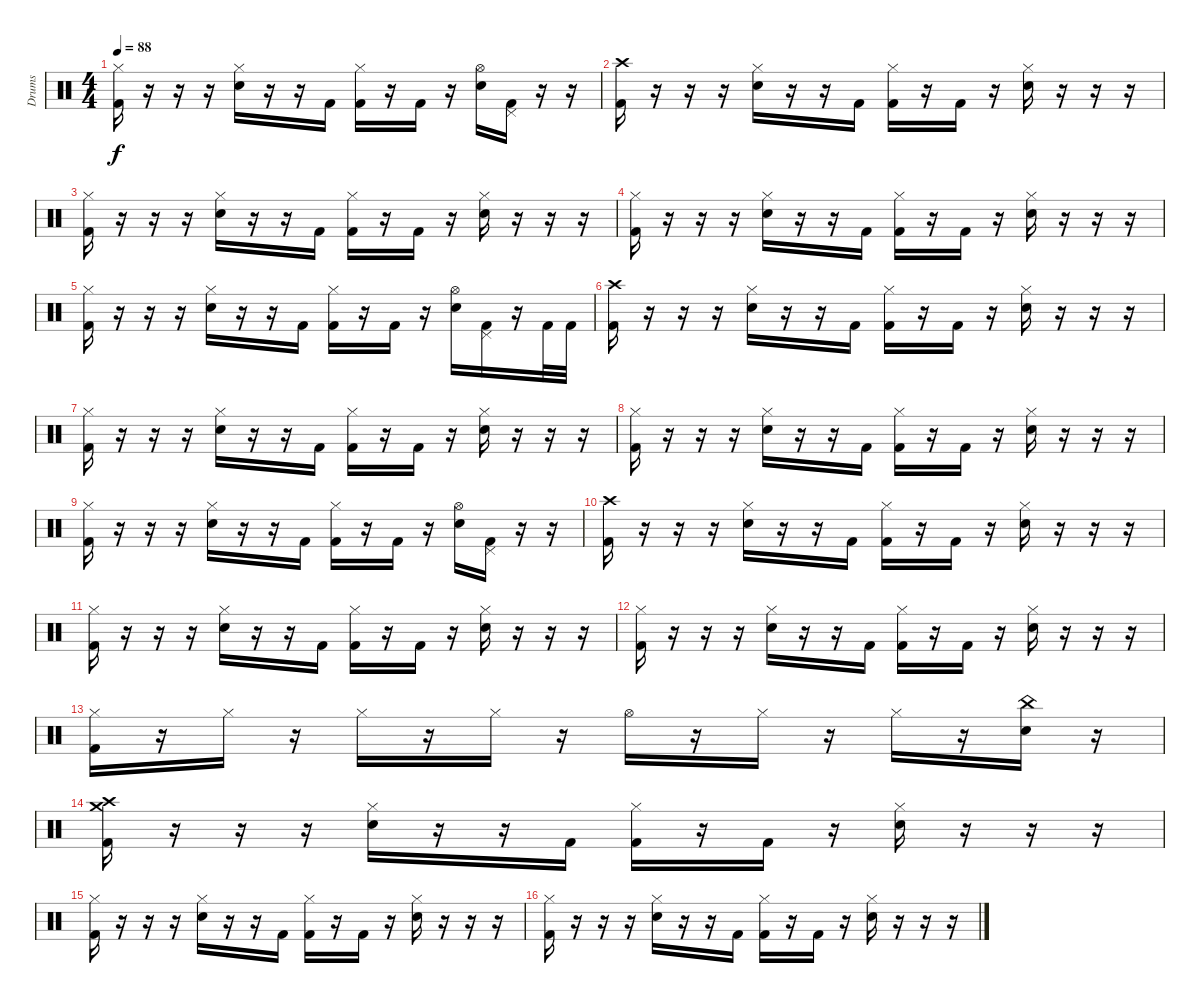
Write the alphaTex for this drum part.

\track ("Drums" "Drums") {instrument percussion}
\staff {score}
\articulation defaults
\ts (4 4)
\tempo 88
\clef neutral
\ks c
("Hi-Hat (closed)" "Kick (hit) 2").16{dy f} r.16 r.16 r.16 ("Hi-Hat (closed)" "Electric Snare (hit)").16 r.16 r.16 "Kick (hit) 2".16 ("Hi-Hat (closed)" "Kick (hit) 2").16 r.16 "Kick (hit) 2".16 r.16 ("Hi-Hat (open)" "Snare (hit) 2").16 ("Pedal Hi-Hat (hit)" "Kick (hit) 2").16 r.16 r.16 |
("Crash high (hit)" "Kick (hit) 2").16 r.16 r.16 r.16 ("Hi-Hat (closed)" "Electric Snare (hit)").16 r.16 r.16 "Kick (hit) 2".16 ("Hi-Hat (closed)" "Kick (hit) 2").16 r.16 "Kick (hit) 2".16 r.16 ("Hi-Hat (closed)" "Electric Snare (hit)").16 r.16 r.16 r.16 |
("Hi-Hat (closed)" "Kick (hit) 2").16 r.16 r.16 r.16 ("Hi-Hat (closed)" "Electric Snare (hit)").16 r.16 r.16 "Kick (hit) 2".16 ("Hi-Hat (closed)" "Kick (hit) 2").16 r.16 "Kick (hit) 2".16 r.16 ("Hi-Hat (closed)" "Electric Snare (hit)").16 r.16 r.16 r.16 |
("Hi-Hat (closed)" "Kick (hit) 2").16 r.16 r.16 r.16 ("Hi-Hat (closed)" "Electric Snare (hit)").16 r.16 r.16 "Kick (hit) 2".16 ("Hi-Hat (closed)" "Kick (hit) 2").16 r.16 "Kick (hit) 2".16 r.16 ("Hi-Hat (closed)" "Electric Snare (hit)").16 r.16 r.16 r.16 |
("Hi-Hat (closed)" "Kick (hit) 2").16 r.16 r.16 r.16 ("Hi-Hat (closed)" "Electric Snare (hit)").16 r.16 r.16 "Kick (hit) 2".16 ("Hi-Hat (closed)" "Kick (hit) 2").16 r.16 "Kick (hit) 2".16 r.16 ("Hi-Hat (open)" "Snare (hit) 2").16 ("Pedal Hi-Hat (hit)" "Kick (hit) 2").16 r.16 "Kick (hit) 2".32 "Kick (hit) 2".32 |
("Crash high (hit)" "Kick (hit) 2").16 r.16 r.16 r.16 ("Hi-Hat (closed)" "Electric Snare (hit)").16 r.16 r.16 "Kick (hit) 2".16 ("Hi-Hat (closed)" "Kick (hit) 2").16 r.16 "Kick (hit) 2".16 r.16 ("Hi-Hat (closed)" "Electric Snare (hit)").16 r.16 r.16 r.16 |
("Hi-Hat (closed)" "Kick (hit) 2").16 r.16 r.16 r.16 ("Hi-Hat (closed)" "Electric Snare (hit)").16 r.16 r.16 "Kick (hit) 2".16 ("Hi-Hat (closed)" "Kick (hit) 2").16 r.16 "Kick (hit) 2".16 r.16 ("Hi-Hat (closed)" "Electric Snare (hit)").16 r.16 r.16 r.16 |
("Hi-Hat (closed)" "Kick (hit) 2").16 r.16 r.16 r.16 ("Hi-Hat (closed)" "Electric Snare (hit)").16 r.16 r.16 "Kick (hit) 2".16 ("Hi-Hat (closed)" "Kick (hit) 2").16 r.16 "Kick (hit) 2".16 r.16 ("Hi-Hat (closed)" "Electric Snare (hit)").16 r.16 r.16 r.16 |
("Hi-Hat (closed)" "Kick (hit) 2").16 r.16 r.16 r.16 ("Hi-Hat (closed)" "Electric Snare (hit)").16 r.16 r.16 "Kick (hit) 2".16 ("Hi-Hat (closed)" "Kick (hit) 2").16 r.16 "Kick (hit) 2".16 r.16 ("Hi-Hat (open)" "Snare (hit) 2").16 ("Pedal Hi-Hat (hit)" "Kick (hit) 2").16 r.16 r.16 |
("Crash high (hit)" "Kick (hit) 2").16 r.16 r.16 r.16 ("Hi-Hat (closed)" "Electric Snare (hit)").16 r.16 r.16 "Kick (hit) 2".16 ("Hi-Hat (closed)" "Kick (hit) 2").16 r.16 "Kick (hit) 2".16 r.16 ("Hi-Hat (closed)" "Electric Snare (hit)").16 r.16 r.16 r.16 |
("Hi-Hat (closed)" "Kick (hit) 2").16 r.16 r.16 r.16 ("Hi-Hat (closed)" "Electric Snare (hit)").16 r.16 r.16 "Kick (hit) 2".16 ("Hi-Hat (closed)" "Kick (hit) 2").16 r.16 "Kick (hit) 2".16 r.16 ("Hi-Hat (closed)" "Electric Snare (hit)").16 r.16 r.16 r.16 |
("Hi-Hat (closed)" "Kick (hit) 2").16 r.16 r.16 r.16 ("Hi-Hat (closed)" "Electric Snare (hit)").16 r.16 r.16 "Kick (hit) 2".16 ("Hi-Hat (closed)" "Kick (hit) 2").16 r.16 "Kick (hit) 2".16 r.16 ("Hi-Hat (closed)" "Electric Snare (hit)").16 r.16 r.16 r.16 |
("Hi-Hat (closed)" "Kick (hit) 2").16 r.16 "Hi-Hat (closed)".16 r.16 "Hi-Hat (closed)".16 r.16 "Hi-Hat (closed)".16 r.16 "Hi-Hat (open)".16 r.16 "Hi-Hat (closed)".16 r.16 "Hi-Hat (closed)".16 r.16 ("China (hit)" "Electric Snare (hit)").16 r.16 |
("Crash high (hit)" "Crash medium (hit)" "Kick (hit) 2").16 r.16 r.16 r.16 ("Hi-Hat (closed)" "Electric Snare (hit)").16 r.16 r.16 "Kick (hit) 2".16 ("Hi-Hat (closed)" "Kick (hit) 2").16 r.16 "Kick (hit) 2".16 r.16 ("Hi-Hat (closed)" "Electric Snare (hit)").16 r.16 r.16 r.16 |
("Hi-Hat (closed)" "Kick (hit) 2").16 r.16 r.16 r.16 ("Hi-Hat (closed)" "Electric Snare (hit)").16 r.16 r.16 "Kick (hit) 2".16 ("Hi-Hat (closed)" "Kick (hit) 2").16 r.16 "Kick (hit) 2".16 r.16 ("Hi-Hat (closed)" "Electric Snare (hit)").16 r.16 r.16 r.16 |
("Hi-Hat (closed)" "Kick (hit) 2").16 r.16 r.16 r.16 ("Hi-Hat (closed)" "Electric Snare (hit)").16 r.16 r.16 "Kick (hit) 2".16 ("Hi-Hat (closed)" "Kick (hit) 2").16 r.16 "Kick (hit) 2".16 r.16 ("Hi-Hat (closed)" "Electric Snare (hit)").16 r.16 r.16 r.16
